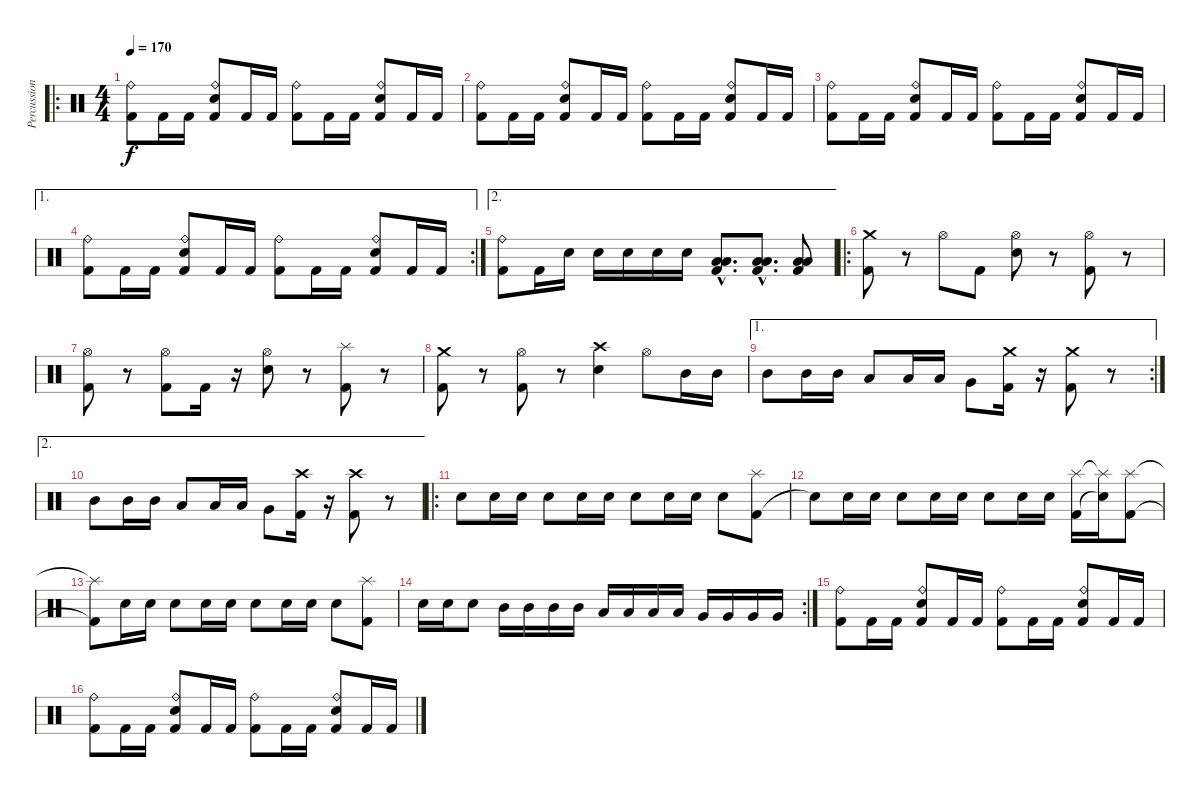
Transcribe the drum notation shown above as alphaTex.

\track ("Percussions" "Percussion") {instrument percussion}
\staff {score}
\articulation defaults
\ro
\ts (4 4)
\tempo 170
\clef neutral
\ks c
("Kick (hit) 2" "Ride (bell)").8{dy f} "Kick (hit) 2".16 "Kick (hit) 2".16 ("Kick (hit) 2" "Snare (hit) 2" "Ride (bell)").8 "Kick (hit) 2".16 "Kick (hit) 2".16 ("Kick (hit) 2" "Ride (bell)").8 "Kick (hit) 2".16 "Kick (hit) 2".16 ("Kick (hit) 2" "Snare (hit) 2" "Ride (bell)").8 "Kick (hit) 2".16 "Kick (hit) 2".16 |
("Kick (hit) 2" "Ride (bell)").8 "Kick (hit) 2".16 "Kick (hit) 2".16 ("Kick (hit) 2" "Snare (hit) 2" "Ride (bell)").8 "Kick (hit) 2".16 "Kick (hit) 2".16 ("Kick (hit) 2" "Ride (bell)").8 "Kick (hit) 2".16 "Kick (hit) 2".16 ("Kick (hit) 2" "Snare (hit) 2" "Ride (bell)").8 "Kick (hit) 2".16 "Kick (hit) 2".16 |
("Kick (hit) 2" "Ride (bell)").8 "Kick (hit) 2".16 "Kick (hit) 2".16 ("Kick (hit) 2" "Snare (hit) 2" "Ride (bell)").8 "Kick (hit) 2".16 "Kick (hit) 2".16 ("Kick (hit) 2" "Ride (bell)").8 "Kick (hit) 2".16 "Kick (hit) 2".16 ("Kick (hit) 2" "Snare (hit) 2" "Ride (bell)").8 "Kick (hit) 2".16 "Kick (hit) 2".16 |
\ae 1
\rc 2
("Kick (hit) 2" "Ride (bell)").8 "Kick (hit) 2".16 "Kick (hit) 2".16 ("Kick (hit) 2" "Snare (hit) 2" "Ride (bell)").8 "Kick (hit) 2".16 "Kick (hit) 2".16 ("Kick (hit) 2" "Ride (bell)").8 "Kick (hit) 2".16 "Kick (hit) 2".16 ("Kick (hit) 2" "Snare (hit) 2" "Ride (bell)").8 "Kick (hit) 2".16 "Kick (hit) 2".16 |
\ae 2
("Kick (hit) 2" "Ride (bell)").8 "Kick (hit) 2".16 "Snare (hit) 2".16 "Snare (hit) 2".16 "Snare (hit) 2".16 "Snare (hit) 2".16 "Snare (hit) 2".16 ("Kick (hit) 2"{hac} "Low Floor Tom (hit)"{hac} "Low Tom (hit)"{hac}).8{d} ("Kick (hit) 2"{hac} "Low Floor Tom (hit)"{hac} "Low Tom (hit)"{hac}).8{d} ("Kick (hit) 2" "Low Floor Tom (hit)" "Low Tom (hit)").8 |
\ro
("Kick (hit) 2" "Crash medium (hit)").8 r.8 "Hi-Hat (open)".8 "Kick (hit) 2".8 ("Snare (hit) 2" "Hi-Hat (open)").8 r.8 ("Kick (hit) 2" "Hi-Hat (open)").8 r.8 |
("Kick (hit) 2" "Hi-Hat (open)").8 r.8 ("Kick (hit) 2" "Hi-Hat (open)").8 "Kick (hit) 2".16 r.16 ("Snare (hit) 2" "Hi-Hat (open)").8 r.8 ("Kick (hit) 2" "Splash (hit)").8 r.8 |
("Kick (hit) 2" "Crash medium (hit)").8 r.8 ("Kick (hit) 2" "Hi-Hat (open)").8 r.8 ("Snare (hit) 2" "Crash high (hit)").4 "Hi-Hat (open)".8 "Mid Tom (hit)".16 "Mid Tom (hit)".16 |
\ae 1
\rc 2 "Mid Tom (hit)".8 "Mid Tom (hit)".16 "Mid Tom (hit)".16 "Low Tom (hit)".8 "Low Tom (hit)".16 "Low Tom (hit)".16 "Very Low Tom (hit)".8
("Kick (hit) 2" "Crash medium (hit)").16 r.16 ("Kick (hit) 2" "Crash medium (hit)").8 r.8 |
\ae 2 "Mid Tom (hit)".8 "Mid Tom (hit)".16 "Mid Tom (hit)".16 "Low Tom (hit)".8 "Low Tom (hit)".16 "Low Tom (hit)".16 "Very Low Tom (hit)".8
("Kick (hit) 2" "Crash high (hit)").16 r.16 ("Kick (hit) 2" "Crash high (hit)").8 r.8 |
\ro "Snare (hit) 2".8 "Snare (hit) 2".16 "Snare (hit) 2".16 "Snare (hit) 2".8 "Snare (hit) 2".16 "Snare (hit) 2".16 "Snare (hit) 2".8 "Snare (hit) 2".16 "Snare (hit) 2".16 "Snare (hit) 2".8
("Kick (hit) 2" "Splash (hit)").8 |
"Snare (hit)"{t}.8 "Snare (hit) 2".16 "Snare (hit) 2".16 "Snare (hit) 2".8 "Snare (hit) 2".16 "Snare (hit) 2".16 "Snare (hit) 2".8 "Snare (hit) 2".16 "Snare (hit) 2".16 ("Kick (hit) 2" "Splash (hit)").16 ("Snare (hit) 2"{t} "Splash (hit)"{t}).16 ("Kick (hit) 2" "Splash (hit)").8 |
("Kick (hit) 2"{t} "Splash (hit)"{t}).8 "Snare (hit) 2".16 "Snare (hit) 2".16 "Snare (hit) 2".8 "Snare (hit) 2".16 "Snare (hit) 2".16 "Snare (hit) 2".8 "Snare (hit) 2".16 "Snare (hit) 2".16 "Snare (hit) 2".8 ("Kick (hit) 2" "Splash (hit)").8 |
\rc 2 "Snare (hit) 2".16 "Snare (hit) 2".16 "Snare (hit) 2".8 "Mid Tom (hit)".16 "Mid Tom (hit)".16 "Mid Tom (hit)".16 "Mid Tom (hit)".16 "Low Tom (hit)".16 "Low Tom (hit)".16 "Low Tom (hit)".16 "Low Tom (hit)".16 "Very Low Tom (hit)".16 "Very Low Tom (hit)".16 "Very Low Tom (hit)".16 "Very Low Tom (hit)".16
|
("Kick (hit) 2" "Ride (bell)").8 "Kick (hit) 2".16 "Kick (hit) 2".16 ("Kick (hit) 2" "Snare (hit) 2" "Ride (bell)").8 "Kick (hit) 2".16 "Kick (hit) 2".16 ("Kick (hit) 2" "Ride (bell)").8 "Kick (hit) 2".16 "Kick (hit) 2".16 ("Kick (hit) 2" "Snare (hit) 2" "Ride (bell)").8 "Kick (hit) 2".16 "Kick (hit) 2".16 |
("Kick (hit) 2" "Ride (bell)").8 "Kick (hit) 2".16 "Kick (hit) 2".16 ("Kick (hit) 2" "Snare (hit) 2" "Ride (bell)").8 "Kick (hit) 2".16 "Kick (hit) 2".16 ("Kick (hit) 2" "Ride (bell)").8 "Kick (hit) 2".16 "Kick (hit) 2".16 ("Kick (hit) 2" "Snare (hit) 2" "Ride (bell)").8 "Kick (hit) 2".16 "Kick (hit) 2".16
